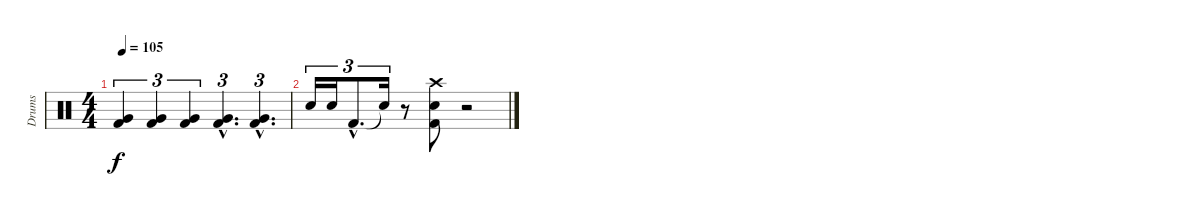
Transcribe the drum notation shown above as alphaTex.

\track ("Drums" "Drums") {instrument percussion}
\staff {score}
\articulation defaults
\ts (4 4)
\tempo 105
\clef neutral
\ks c
("Very Low Tom (hit)" "Kick (hit) 2").4{tu (3 2) dy f} ("Very Low Tom (hit)" "Kick (hit) 2").4{tu (3 2)} ("Very Low Tom (hit)" "Kick (hit) 2").4{tu (3 2)} ("Very Low Tom (hit)"{hac} "Kick (hit) 2"{hac}).4{d tu (3 2)} ("Very Low Tom (hit)"{hac} "Kick (hit) 2"{hac}).4{d tu (3 2)} |
"Snare (hit) 2".16{tu (3 2)} "Snare (hit) 2".16{tu (3 2)} "Kick (hit) 2"{hac}.8{d tu (3 2)} "Snare (hit)"{t}.16{tu (3 2)} r.8 ("Crash high (hit)" "Snare (hit) 2" "Kick (hit) 2").8 r.2
